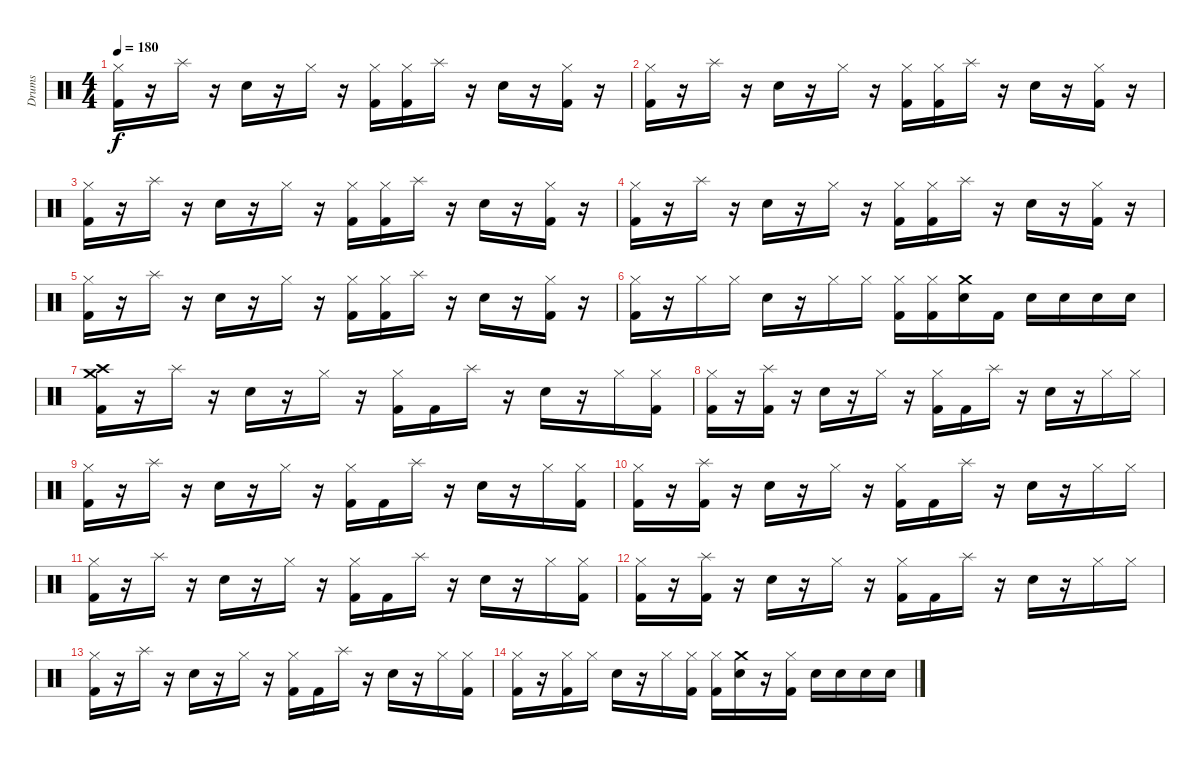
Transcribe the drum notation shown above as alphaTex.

\track ("Drums" "Drums") {instrument percussion}
\staff {score}
\articulation defaults
\ts (4 4)
\tempo 180
\clef neutral
\ks c
("Hi-Hat (closed)" "Kick (hit) 2").16{dy f} r.16 "Splash (hit)".16 r.16 "Snare (hit) 2".16 r.16 "Hi-Hat (closed)".16 r.16 ("Hi-Hat (closed)" "Kick (hit) 2").16 ("Hi-Hat (closed)" "Kick (hit) 2").16 "Splash (hit)".16 r.16 "Snare (hit) 2".16 r.16 ("Hi-Hat (closed)" "Kick (hit) 2").16 r.16 |
("Hi-Hat (closed)" "Kick (hit) 2").16 r.16 "Splash (hit)".16 r.16 "Snare (hit) 2".16 r.16 "Hi-Hat (closed)".16 r.16 ("Hi-Hat (closed)" "Kick (hit) 2").16 ("Hi-Hat (closed)" "Kick (hit) 2").16 "Splash (hit)".16 r.16 "Snare (hit) 2".16 r.16 ("Hi-Hat (closed)" "Kick (hit) 2").16 r.16 |
("Hi-Hat (closed)" "Kick (hit) 2").16 r.16 "Splash (hit)".16 r.16 "Snare (hit) 2".16 r.16 "Hi-Hat (closed)".16 r.16 ("Hi-Hat (closed)" "Kick (hit) 2").16 ("Hi-Hat (closed)" "Kick (hit) 2").16 "Splash (hit)".16 r.16 "Snare (hit) 2".16 r.16 ("Hi-Hat (closed)" "Kick (hit) 2").16 r.16 |
("Hi-Hat (closed)" "Kick (hit) 2").16 r.16 "Splash (hit)".16 r.16 "Snare (hit) 2".16 r.16 "Hi-Hat (closed)".16 r.16 ("Hi-Hat (closed)" "Kick (hit) 2").16 ("Hi-Hat (closed)" "Kick (hit) 2").16 "Splash (hit)".16 r.16 "Snare (hit) 2".16 r.16 ("Hi-Hat (closed)" "Kick (hit) 2").16 r.16 |
("Hi-Hat (closed)" "Kick (hit) 2").16 r.16 "Splash (hit)".16 r.16 "Snare (hit) 2".16 r.16 "Hi-Hat (closed)".16 r.16 ("Hi-Hat (closed)" "Kick (hit) 2").16 ("Hi-Hat (closed)" "Kick (hit) 2").16 "Splash (hit)".16 r.16 "Snare (hit) 2".16 r.16 ("Hi-Hat (closed)" "Kick (hit) 2").16 r.16 |
("Hi-Hat (closed)" "Kick (hit) 2").16 r.16 "Hi-Hat (closed)".16 "Hi-Hat (closed)".16 "Snare (hit) 2".16 r.16 "Hi-Hat (closed)".16 "Hi-Hat (closed)".16 ("Hi-Hat (closed)" "Kick (hit) 2").16 ("Hi-Hat (closed)" "Kick (hit) 2").16 ("Crash medium (hit)" "Snare (hit) 2").16 "Kick (hit) 2".16 "Snare (hit) 2".16 "Snare (hit) 2".16 "Snare (hit) 2".16 "Snare (hit) 2".16 |
("Crash medium (hit)" "Crash high (hit)" "Kick (hit) 2").16 r.16 "Splash (hit)".16 r.16 "Snare (hit) 2".16 r.16 "Hi-Hat (closed)".16 r.16 ("Hi-Hat (closed)" "Kick (hit) 2").16 "Kick (hit) 2".16 "Splash (hit)".16 r.16 "Snare (hit) 2".16 r.16 "Hi-Hat (closed)".16 ("Hi-Hat (closed)" "Kick (hit) 2").16 |
("Hi-Hat (closed)" "Kick (hit) 2").16 r.16 ("Splash (hit)" "Kick (hit) 2").16 r.16 "Snare (hit) 2".16 r.16 "Hi-Hat (closed)".16 r.16 ("Hi-Hat (closed)" "Kick (hit) 2").16 "Kick (hit) 2".16 "Splash (hit)".16 r.16 "Snare (hit) 2".16 r.16 "Hi-Hat (closed)".16 "Hi-Hat (closed)".16 |
("Hi-Hat (closed)" "Kick (hit) 2").16 r.16 "Splash (hit)".16 r.16 "Snare (hit) 2".16 r.16 "Hi-Hat (closed)".16 r.16 ("Hi-Hat (closed)" "Kick (hit) 2").16 "Kick (hit) 2".16 "Splash (hit)".16 r.16 "Snare (hit) 2".16 r.16 "Hi-Hat (closed)".16 ("Hi-Hat (closed)" "Kick (hit) 2").16 |
("Hi-Hat (closed)" "Kick (hit) 2").16 r.16 ("Splash (hit)" "Kick (hit) 2").16 r.16 "Snare (hit) 2".16 r.16 "Hi-Hat (closed)".16 r.16 ("Hi-Hat (closed)" "Kick (hit) 2").16 "Kick (hit) 2".16 "Splash (hit)".16 r.16 "Snare (hit) 2".16 r.16 "Hi-Hat (closed)".16 "Hi-Hat (closed)".16 |
("Hi-Hat (closed)" "Kick (hit) 2").16 r.16 "Splash (hit)".16 r.16 "Snare (hit) 2".16 r.16 "Hi-Hat (closed)".16 r.16 ("Hi-Hat (closed)" "Kick (hit) 2").16 "Kick (hit) 2".16 "Splash (hit)".16 r.16 "Snare (hit) 2".16 r.16 "Hi-Hat (closed)".16 ("Hi-Hat (closed)" "Kick (hit) 2").16 |
("Hi-Hat (closed)" "Kick (hit) 2").16 r.16 ("Splash (hit)" "Kick (hit) 2").16 r.16 "Snare (hit) 2".16 r.16 "Hi-Hat (closed)".16 r.16 ("Hi-Hat (closed)" "Kick (hit) 2").16 "Kick (hit) 2".16 "Splash (hit)".16 r.16 "Snare (hit) 2".16 r.16 "Hi-Hat (closed)".16 "Hi-Hat (closed)".16 |
("Hi-Hat (closed)" "Kick (hit) 2").16 r.16 "Splash (hit)".16 r.16 "Snare (hit) 2".16 r.16 "Hi-Hat (closed)".16 r.16 ("Hi-Hat (closed)" "Kick (hit) 2").16 "Kick (hit) 2".16 "Splash (hit)".16 r.16 "Snare (hit) 2".16 r.16 "Hi-Hat (closed)".16 ("Hi-Hat (closed)" "Kick (hit) 2").16 |
("Hi-Hat (closed)" "Kick (hit) 2").16 r.16 ("Hi-Hat (closed)" "Kick (hit) 2").16 "Hi-Hat (closed)".16 "Snare (hit) 2".16 r.16 "Hi-Hat (closed)".16 ("Hi-Hat (closed)" "Kick (hit) 2").16 ("Hi-Hat (closed)" "Kick (hit) 2").16 ("Crash medium (hit)" "Snare (hit) 2").16 r.16 ("Hi-Hat (closed)" "Kick (hit) 2").16 "Snare (hit) 2".16 "Snare (hit) 2".16 "Snare (hit) 2".16 "Snare (hit) 2".16
